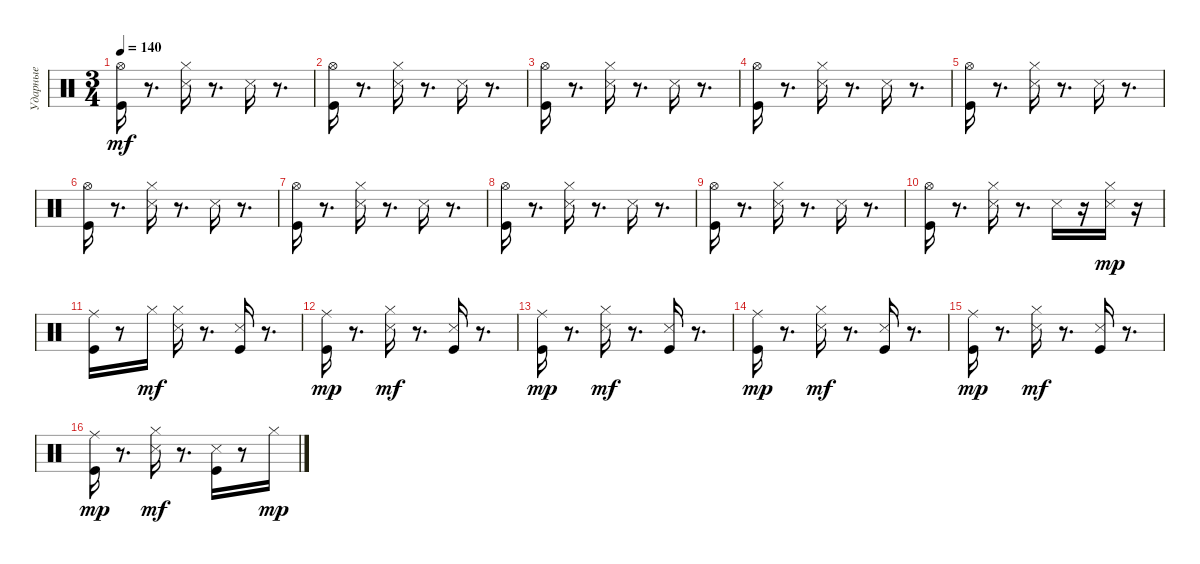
\track ("Ударные" "Ударные") {instrument percussion}
\staff {score}
\articulation defaults
\ts (3 4)
\tempo 140
\clef neutral
\ks c
("Kick (hit)" "Hi-Hat (open)").16{dy mf} r.8{d} ("Hi-Hat (closed)" "Snare (side stick) 3").16 r.8{d} "Snare (side stick) 3".16 r.8{d} |
("Kick (hit)" "Hi-Hat (open)").16 r.8{d} ("Hi-Hat (closed)" "Snare (side stick) 3").16 r.8{d} "Snare (side stick) 3".16 r.8{d} |
("Kick (hit)" "Hi-Hat (open)").16 r.8{d} ("Hi-Hat (closed)" "Snare (side stick) 3").16 r.8{d} "Snare (side stick) 3".16 r.8{d} |
("Kick (hit)" "Hi-Hat (open)").16 r.8{d} ("Hi-Hat (closed)" "Snare (side stick) 3").16 r.8{d} "Snare (side stick) 3".16 r.8{d} |
("Kick (hit)" "Hi-Hat (open)").16 r.8{d} ("Hi-Hat (closed)" "Snare (side stick) 3").16 r.8{d} "Snare (side stick) 3".16 r.8{d} |
("Kick (hit)" "Hi-Hat (open)").16 r.8{d} ("Hi-Hat (closed)" "Snare (side stick) 3").16 r.8{d} "Snare (side stick) 3".16 r.8{d} |
("Kick (hit)" "Hi-Hat (open)").16 r.8{d} ("Hi-Hat (closed)" "Snare (side stick) 3").16 r.8{d} "Snare (side stick) 3".16 r.8{d} |
("Kick (hit)" "Hi-Hat (open)").16 r.8{d} ("Hi-Hat (closed)" "Snare (side stick) 3").16 r.8{d} "Snare (side stick) 3".16 r.8{d} |
("Kick (hit)" "Hi-Hat (open)").16 r.8{d} ("Hi-Hat (closed)" "Snare (side stick) 3").16 r.8{d} "Snare (side stick) 3".16 r.8{d} |
("Kick (hit)" "Hi-Hat (open)").16 r.8{d} ("Hi-Hat (closed)" "Snare (side stick) 3").16 r.8{d} "Snare (side stick) 3".16 r.16 ("Hi-Hat (closed)" "Snare (side stick) 3").16{dy mp} r.16 |
("Kick (hit)" "Ride (middle)").16 r.8 "Hi-Hat (closed)".16{dy mf} ("Hi-Hat (closed)" "Snare (side stick) 3").16 r.8{d} ("Kick (hit)" "Snare (side stick) 3").16 r.8{d} |
("Kick (hit)" "Ride (middle)").16{dy mp} r.8{d} ("Hi-Hat (closed)" "Snare (side stick) 3").16{dy mf} r.8{d} ("Kick (hit)" "Snare (side stick) 3").16 r.8{d} |
("Kick (hit)" "Ride (middle)").16{dy mp} r.8{d} ("Hi-Hat (closed)" "Snare (side stick) 3").16{dy mf} r.8{d} ("Kick (hit)" "Snare (side stick) 3").16 r.8{d} |
("Kick (hit)" "Ride (middle)").16{dy mp} r.8{d} ("Hi-Hat (closed)" "Snare (side stick) 3").16{dy mf} r.8{d} ("Kick (hit)" "Snare (side stick) 3").16 r.8{d} |
("Kick (hit)" "Ride (middle)").16{dy mp} r.8{d} ("Hi-Hat (closed)" "Snare (side stick) 3").16{dy mf} r.8{d} ("Kick (hit)" "Snare (side stick) 3").16 r.8{d} |
("Kick (hit)" "Ride (middle)").16{dy mp} r.8{d} ("Hi-Hat (closed)" "Snare (side stick) 3").16{dy mf} r.8{d} ("Kick (hit)" "Snare (side stick) 3").16 r.8 "Hi-Hat (closed)".16{dy mp}
